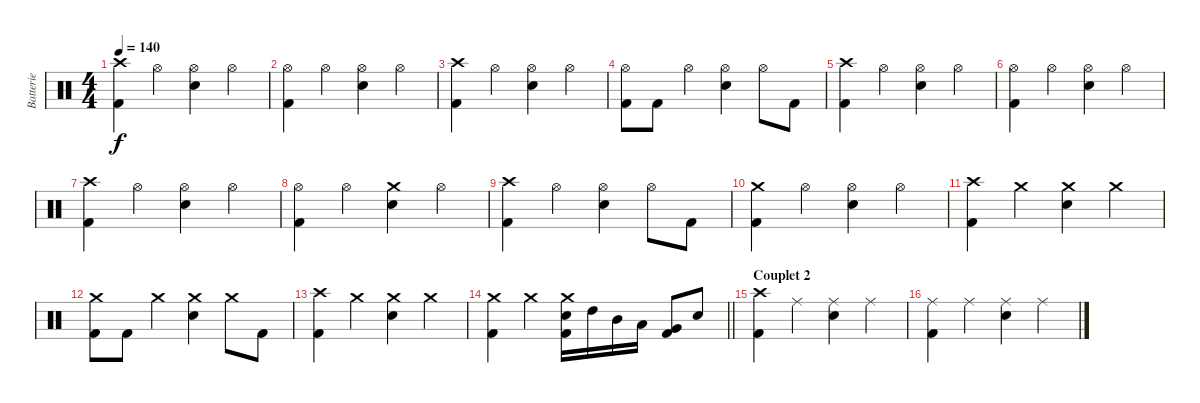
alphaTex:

\track ("Batterie" "Batterie") {instrument percussion}
\staff {score}
\articulation defaults
\ts (4 4)
\tempo 140
\clef neutral
\ks c
("Crash high (hit)" "Kick (hit) 2").4{dy f} "Hi-Hat (open)".4 ("Hi-Hat (open)" "Electric Snare (hit)").4 "Hi-Hat (open)".4 |
("Hi-Hat (open)" "Kick (hit) 2").4 "Hi-Hat (open)".4 ("Hi-Hat (open)" "Electric Snare (hit)").4 "Hi-Hat (open)".4 |
("Crash high (hit)" "Kick (hit) 2").4 "Hi-Hat (open)".4 ("Hi-Hat (open)" "Electric Snare (hit)").4 "Hi-Hat (open)".4 |
("Hi-Hat (open)" "Kick (hit) 2").8 "Kick (hit) 2".8 "Hi-Hat (open)".4 ("Hi-Hat (open)" "Electric Snare (hit)").4 "Hi-Hat (open)".8 "Kick (hit) 2".8 |
("Crash high (hit)" "Kick (hit) 2").4 "Hi-Hat (open)".4 ("Hi-Hat (open)" "Electric Snare (hit)").4 "Hi-Hat (open)".4 |
("Hi-Hat (open)" "Kick (hit) 2").4 "Hi-Hat (open)".4 ("Hi-Hat (open)" "Electric Snare (hit)").4 "Hi-Hat (open)".4 |
("Crash high (hit)" "Kick (hit) 2").4 "Hi-Hat (open)".4 ("Hi-Hat (open)" "Electric Snare (hit)").4 "Hi-Hat (open)".4 |
("Hi-Hat (open)" "Kick (hit) 2").4 "Hi-Hat (open)".4 ("Crash medium (hit)" "Electric Snare (hit)").4 "Hi-Hat (open)".4 |
("Crash high (hit)" "Kick (hit) 2").4 "Hi-Hat (open)".4 ("Hi-Hat (open)" "Electric Snare (hit)").4 "Hi-Hat (open)".8 "Kick (hit) 2".8 |
("Crash medium (hit)" "Kick (hit) 2").4 "Hi-Hat (open)".4 ("Hi-Hat (open)" "Electric Snare (hit)").4 "Hi-Hat (open)".4 |
("Crash high (hit)" "Kick (hit) 2").4 "Crash medium (hit)".4 ("Crash medium (hit)" "Electric Snare (hit)").4 "Crash medium (hit)".4 |
("Crash medium (hit)" "Kick (hit) 2").8 "Kick (hit) 2".8 "Crash medium (hit)".4 ("Crash medium (hit)" "Electric Snare (hit)").4 "Crash medium (hit)".8 "Kick (hit) 2".8 |
("Crash high (hit)" "Kick (hit) 2").4 "Crash medium (hit)".4 ("Crash medium (hit)" "Electric Snare (hit)").4 "Crash medium (hit)".4 |
\barLineRight lightlight
("Crash medium (hit)" "Kick (hit) 2").4 "Crash medium (hit)".4 ("Crash medium (hit)" "Electric Snare (hit)" "Kick (hit) 2").16 "High Tom (hit)".16 "Mid Tom (hit)".16 "Low Tom (hit)".16 ("Very Low Tom (hit)" "Kick (hit) 2").8 "Electric Snare (hit)".8 |
\section ("" "Couplet 2")
("Crash high (hit)" "Kick (hit) 2").4 "Ride (middle)".4 ("Ride (middle)" "Electric Snare (hit)").4 "Ride (middle)".4 |
("Ride (middle)" "Kick (hit) 2").4 "Ride (middle)".4 ("Ride (middle)" "Electric Snare (hit)").4 "Ride (middle)".4
